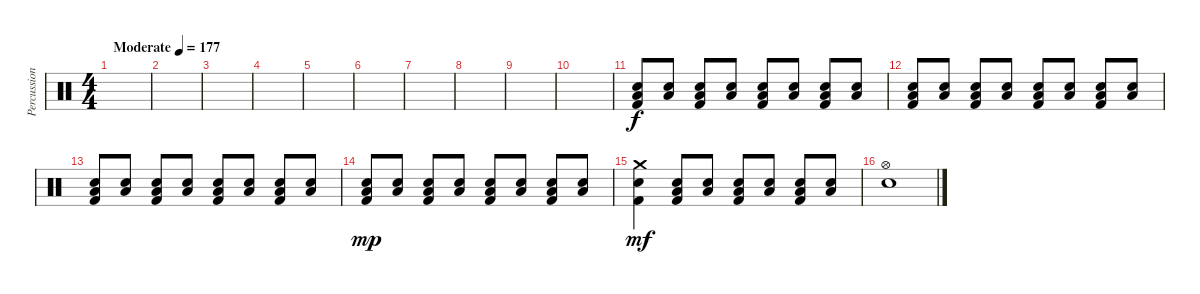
\track ("Percussion" "Percussion") {instrument percussion}
\staff {score}
\articulation defaults
\ts (4 4)
\tempo (177 "Moderate")
\clef neutral
\ks c
|
|
|
|
|
|
|
|
|
|
("Low Floor Tom (hit)" "Electric Snare (hit)" "Kick (hit) 2").8 ("Low Floor Tom (hit)" "Electric Snare (hit)").8 ("Low Floor Tom (hit)" "Electric Snare (hit)" "Kick (hit) 2").8 ("Low Floor Tom (hit)" "Electric Snare (hit)").8 ("Low Floor Tom (hit)" "Electric Snare (hit)" "Kick (hit) 2").8 ("Low Floor Tom (hit)" "Electric Snare (hit)").8 ("Low Floor Tom (hit)" "Electric Snare (hit)" "Kick (hit) 2").8 ("Low Floor Tom (hit)" "Electric Snare (hit)").8 |
("Low Floor Tom (hit)" "Electric Snare (hit)" "Kick (hit) 2").8 ("Low Floor Tom (hit)" "Electric Snare (hit)").8 ("Low Floor Tom (hit)" "Electric Snare (hit)" "Kick (hit) 2").8 ("Low Floor Tom (hit)" "Electric Snare (hit)").8 ("Low Floor Tom (hit)" "Electric Snare (hit)" "Kick (hit) 2").8 ("Low Floor Tom (hit)" "Electric Snare (hit)").8 ("Low Floor Tom (hit)" "Electric Snare (hit)" "Kick (hit) 2").8 ("Low Floor Tom (hit)" "Electric Snare (hit)").8 |
("Low Floor Tom (hit)" "Electric Snare (hit)" "Kick (hit) 2").8 ("Low Floor Tom (hit)" "Electric Snare (hit)").8 ("Low Floor Tom (hit)" "Electric Snare (hit)" "Kick (hit) 2").8 ("Low Floor Tom (hit)" "Electric Snare (hit)").8 ("Low Floor Tom (hit)" "Electric Snare (hit)" "Kick (hit) 2").8 ("Low Floor Tom (hit)" "Electric Snare (hit)").8 ("Low Floor Tom (hit)" "Electric Snare (hit)" "Kick (hit) 2").8 ("Low Floor Tom (hit)" "Electric Snare (hit)").8 |
("Low Floor Tom (hit)" "Electric Snare (hit)" "Kick (hit) 2").8{dy mp} ("Low Floor Tom (hit)" "Electric Snare (hit)").8 ("Low Floor Tom (hit)" "Electric Snare (hit)" "Kick (hit) 2").8 ("Low Floor Tom (hit)" "Electric Snare (hit)").8 ("Low Floor Tom (hit)" "Electric Snare (hit)" "Kick (hit) 2").8 ("Low Floor Tom (hit)" "Electric Snare (hit)").8 ("Low Floor Tom (hit)" "Electric Snare (hit)" "Kick (hit) 2").8 ("Low Floor Tom (hit)" "Electric Snare (hit)").8 |
("Crash medium (hit)" "Electric Snare (hit)" "Kick (hit) 2").4{dy mf} ("Low Floor Tom (hit)" "Electric Snare (hit)" "Kick (hit) 2").8 ("Low Floor Tom (hit)" "Electric Snare (hit)").8 ("Low Floor Tom (hit)" "Electric Snare (hit)" "Kick (hit) 2").8 ("Low Floor Tom (hit)" "Electric Snare (hit)").8 ("Low Floor Tom (hit)" "Electric Snare (hit)" "Kick (hit) 2").8 ("Low Floor Tom (hit)" "Electric Snare (hit)").8 |
("Hi-Hat (open)" "Electric Snare (hit)").1
